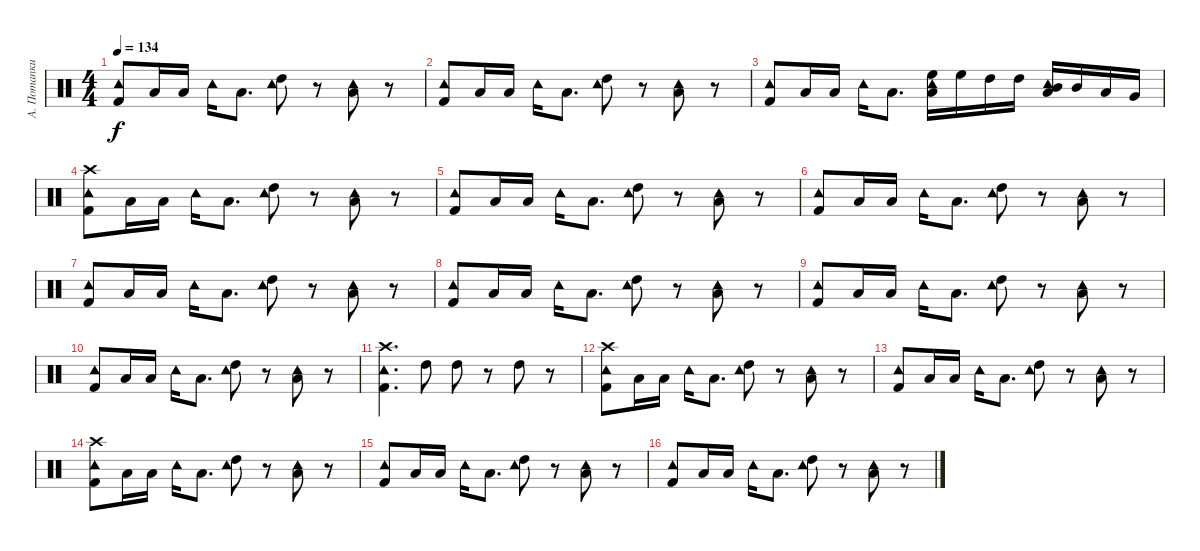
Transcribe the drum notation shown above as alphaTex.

\track ("А. Потапкин" "А. Потапки") {instrument percussion}
\staff {score}
\articulation defaults
\ts (4 4)
\tempo 134
\clef neutral
\ks c
("Tambourine (hit)" "Kick (hit) 2").8{dy f} "Low Tom (hit)".16 "Low Tom (hit)".16 "Tambourine (hit)".16 "Low Tom (hit)".8{d} ("Tambourine (hit)" "High Tom (hit)").8 r.8 ("Tambourine (hit)" "Low Tom (hit)").8 r.8 |
("Tambourine (hit)" "Kick (hit) 2").8 "Low Tom (hit)".16 "Low Tom (hit)".16 "Tambourine (hit)".16 "Low Tom (hit)".8{d} ("Tambourine (hit)" "High Tom (hit)").8 r.8 ("Tambourine (hit)" "Low Tom (hit)").8 r.8 |
("Tambourine (hit)" "Kick (hit) 2").8 "Low Tom (hit)".16 "Low Tom (hit)".16 "Tambourine (hit)".16 "Low Tom (hit)".8{d} ("Tambourine (hit)" "High Floor Tom (hit)" "Low Tom (hit)").16 "High Floor Tom (hit)".16 "High Tom (hit)".16 "High Tom (hit)".16 ("Tambourine (hit)" "Mid Tom (hit)" "Low Tom (hit)").16 "Mid Tom (hit)".16 "Low Tom (hit)".16 "Very Low Tom (hit)".16 |
("Crash high (hit)" "Tambourine (hit)" "Kick (hit) 2").8 "Low Tom (hit)".16 "Low Tom (hit)".16 "Tambourine (hit)".16 "Low Tom (hit)".8{d} ("Tambourine (hit)" "High Tom (hit)").8 r.8 ("Tambourine (hit)" "Low Tom (hit)").8 r.8 |
("Tambourine (hit)" "Kick (hit) 2").8 "Low Tom (hit)".16 "Low Tom (hit)".16 "Tambourine (hit)".16 "Low Tom (hit)".8{d} ("Tambourine (hit)" "High Tom (hit)").8 r.8 ("Tambourine (hit)" "Low Tom (hit)").8 r.8 |
("Tambourine (hit)" "Kick (hit) 2").8 "Low Tom (hit)".16 "Low Tom (hit)".16 "Tambourine (hit)".16 "Low Tom (hit)".8{d} ("Tambourine (hit)" "High Tom (hit)").8 r.8 ("Tambourine (hit)" "Low Tom (hit)").8 r.8 |
("Tambourine (hit)" "Kick (hit) 2").8 "Low Tom (hit)".16 "Low Tom (hit)".16 "Tambourine (hit)".16 "Low Tom (hit)".8{d} ("Tambourine (hit)" "High Tom (hit)").8 r.8 ("Tambourine (hit)" "Low Tom (hit)").8 r.8 |
("Tambourine (hit)" "Kick (hit) 2").8 "Low Tom (hit)".16 "Low Tom (hit)".16 "Tambourine (hit)".16 "Low Tom (hit)".8{d} ("Tambourine (hit)" "High Tom (hit)").8 r.8 ("Tambourine (hit)" "Low Tom (hit)").8 r.8 |
("Tambourine (hit)" "Kick (hit) 2").8 "Low Tom (hit)".16 "Low Tom (hit)".16 "Tambourine (hit)".16 "Low Tom (hit)".8{d} ("Tambourine (hit)" "High Tom (hit)").8 r.8 ("Tambourine (hit)" "Low Tom (hit)").8 r.8 |
("Tambourine (hit)" "Kick (hit) 2").8 "Low Tom (hit)".16 "Low Tom (hit)".16 "Tambourine (hit)".16 "Low Tom (hit)".8{d} ("Tambourine (hit)" "High Tom (hit)").8 r.8 ("Tambourine (hit)" "Low Tom (hit)").8 r.8 |
("Crash high (hit)" "Tambourine (hit)" "Kick (hit) 2").4{d} "High Tom (hit)".8 "High Tom (hit)".8 r.8 "High Tom (hit)".8 r.8 |
("Crash high (hit)" "Tambourine (hit)" "Kick (hit) 2").8 "Low Tom (hit)".16 "Low Tom (hit)".16 "Tambourine (hit)".16 "Low Tom (hit)".8{d} ("Tambourine (hit)" "High Tom (hit)").8 r.8 ("Tambourine (hit)" "Low Tom (hit)").8 r.8 |
("Tambourine (hit)" "Kick (hit) 2").8 "Low Tom (hit)".16 "Low Tom (hit)".16 "Tambourine (hit)".16 "Low Tom (hit)".8{d} ("Tambourine (hit)" "High Tom (hit)").8 r.8 ("Tambourine (hit)" "Low Tom (hit)").8 r.8 |
("Crash high (hit)" "Tambourine (hit)" "Kick (hit) 2").8 "Low Tom (hit)".16 "Low Tom (hit)".16 "Tambourine (hit)".16 "Low Tom (hit)".8{d} ("Tambourine (hit)" "High Tom (hit)").8 r.8 ("Tambourine (hit)" "Low Tom (hit)").8 r.8 |
("Tambourine (hit)" "Kick (hit) 2").8 "Low Tom (hit)".16 "Low Tom (hit)".16 "Tambourine (hit)".16 "Low Tom (hit)".8{d} ("Tambourine (hit)" "High Tom (hit)").8 r.8 ("Tambourine (hit)" "Low Tom (hit)").8 r.8 |
("Tambourine (hit)" "Kick (hit) 2").8 "Low Tom (hit)".16 "Low Tom (hit)".16 "Tambourine (hit)".16 "Low Tom (hit)".8{d} ("Tambourine (hit)" "High Tom (hit)").8 r.8 ("Tambourine (hit)" "Low Tom (hit)").8 r.8
